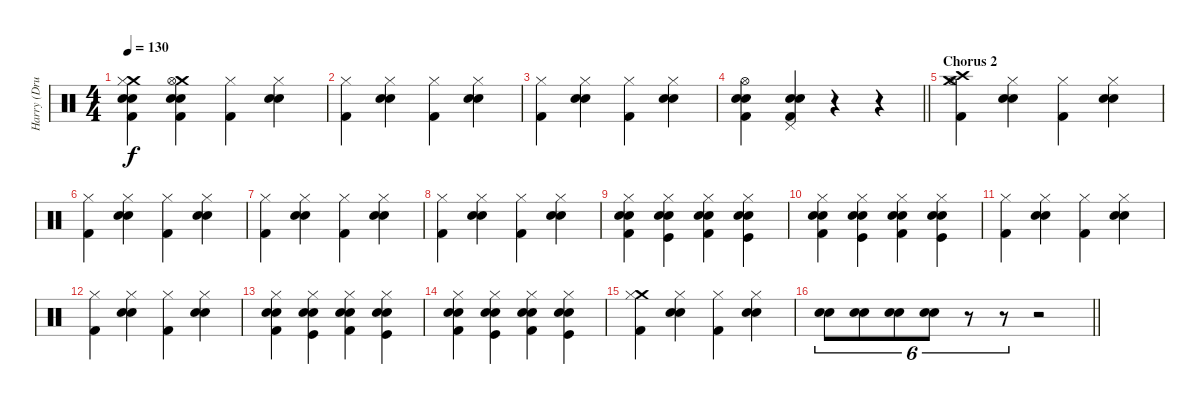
\track ("Harry (Drums)" "Harry (Dru") {instrument percussion}
\staff {score}
\articulation defaults
\ts (4 4)
\tempo 130
\clef neutral
\ks c
("Crash medium (hit)" "Hi-Hat (closed)" "Snare (hit) 2" "Kick (hit) 2" "Electric Snare (hit)").4{dy f} ("Crash medium (hit)" "Hi-Hat (open)" "Kick (hit) 2" "Snare (hit) 2" "Electric Snare (hit)").4 ("Hi-Hat (closed)" "Kick (hit) 2").4 ("Hi-Hat (closed)" "Snare (hit) 2" "Electric Snare (hit)").4 |
("Hi-Hat (closed)" "Kick (hit) 2").4 ("Hi-Hat (closed)" "Snare (hit) 2" "Electric Snare (hit)").4 ("Hi-Hat (closed)" "Kick (hit) 2").4 ("Hi-Hat (closed)" "Snare (hit) 2" "Electric Snare (hit)").4 |
("Hi-Hat (closed)" "Kick (hit) 2").4 ("Hi-Hat (closed)" "Snare (hit) 2" "Electric Snare (hit)").4 ("Hi-Hat (closed)" "Kick (hit) 2").4 ("Hi-Hat (closed)" "Snare (hit) 2" "Electric Snare (hit)").4 |
\barLineRight lightlight
("Hi-Hat (open)" "Electric Snare (hit)" "Kick (hit) 2" "Snare (hit) 2").4 ("Pedal Hi-Hat (hit)" "Kick (hit) 2" "Snare (hit) 2" "Electric Snare (hit)").4 r.4 r.4 |
\section ("" "Chorus 2")
("Crash high (hit)" "Crash medium (hit)" "Hi-Hat (open)" "Kick (hit) 2").4{volume 13} ("Hi-Hat (closed)" "Snare (hit) 2" "Electric Snare (hit)").4 ("Hi-Hat (closed)" "Kick (hit) 2").4 ("Hi-Hat (closed)" "Snare (hit) 2" "Electric Snare (hit)").4 |
("Hi-Hat (closed)" "Kick (hit) 2").4 ("Hi-Hat (closed)" "Snare (hit) 2" "Electric Snare (hit)").4 ("Hi-Hat (closed)" "Kick (hit) 2").4 ("Hi-Hat (closed)" "Snare (hit) 2" "Electric Snare (hit)").4 |
("Hi-Hat (closed)" "Kick (hit) 2").4 ("Hi-Hat (closed)" "Snare (hit) 2" "Electric Snare (hit)").4 ("Hi-Hat (closed)" "Kick (hit) 2").4 ("Hi-Hat (closed)" "Snare (hit) 2" "Electric Snare (hit)").4 |
("Hi-Hat (closed)" "Kick (hit) 2").4 ("Hi-Hat (closed)" "Snare (hit) 2" "Electric Snare (hit)").4 ("Hi-Hat (closed)" "Kick (hit) 2").4 ("Hi-Hat (closed)" "Snare (hit) 2" "Electric Snare (hit)").4 |
("Hi-Hat (closed)" "Electric Snare (hit)" "Snare (hit) 2" "Kick (hit) 2").4 ("Hi-Hat (closed)" "Kick (hit)" "Snare (hit) 2" "Electric Snare (hit)").4 ("Hi-Hat (closed)" "Electric Snare (hit)" "Snare (hit) 2" "Kick (hit) 2").4 ("Hi-Hat (closed)" "Kick (hit)" "Snare (hit) 2" "Electric Snare (hit)").4 |
("Hi-Hat (closed)" "Electric Snare (hit)" "Snare (hit) 2" "Kick (hit) 2").4 ("Hi-Hat (closed)" "Kick (hit)" "Snare (hit) 2" "Electric Snare (hit)").4 ("Hi-Hat (closed)" "Electric Snare (hit)" "Snare (hit) 2" "Kick (hit) 2").4 ("Hi-Hat (closed)" "Kick (hit)" "Snare (hit) 2" "Electric Snare (hit)").4 |
("Hi-Hat (closed)" "Kick (hit) 2").4 ("Hi-Hat (closed)" "Snare (hit) 2" "Electric Snare (hit)").4 ("Hi-Hat (closed)" "Kick (hit) 2").4 ("Hi-Hat (closed)" "Snare (hit) 2" "Electric Snare (hit)").4 |
("Hi-Hat (closed)" "Kick (hit) 2").4 ("Hi-Hat (closed)" "Snare (hit) 2" "Electric Snare (hit)").4 ("Hi-Hat (closed)" "Kick (hit) 2").4 ("Hi-Hat (closed)" "Snare (hit) 2" "Electric Snare (hit)").4 |
("Hi-Hat (closed)" "Electric Snare (hit)" "Snare (hit) 2" "Kick (hit) 2").4 ("Hi-Hat (closed)" "Kick (hit)" "Snare (hit) 2" "Electric Snare (hit)").4 ("Hi-Hat (closed)" "Electric Snare (hit)" "Snare (hit) 2" "Kick (hit) 2").4 ("Hi-Hat (closed)" "Kick (hit)" "Snare (hit) 2" "Electric Snare (hit)").4 |
("Hi-Hat (closed)" "Electric Snare (hit)" "Snare (hit) 2" "Kick (hit) 2").4 ("Hi-Hat (closed)" "Kick (hit)" "Snare (hit) 2" "Electric Snare (hit)").4 ("Hi-Hat (closed)" "Electric Snare (hit)" "Snare (hit) 2" "Kick (hit) 2").4 ("Hi-Hat (closed)" "Kick (hit)" "Snare (hit) 2" "Electric Snare (hit)").4 |
("Crash medium (hit)" "Hi-Hat (closed)" "Kick (hit) 2").4 ("Hi-Hat (closed)" "Snare (hit) 2" "Electric Snare (hit)").4 ("Hi-Hat (closed)" "Kick (hit) 2").4 ("Hi-Hat (closed)" "Snare (hit) 2" "Electric Snare (hit)").4 |
\barLineRight lightlight
("Electric Snare (hit)" "Snare (hit) 2").8{tu (6 4)} ("Electric Snare (hit)" "Snare (hit) 2").8{tu (6 4)} ("Electric Snare (hit)" "Snare (hit) 2").8{tu (6 4)} ("Electric Snare (hit)" "Snare (hit) 2").8{tu (6 4)} r.8{tu (6 4)} r.8{tu (6 4)} r.2
